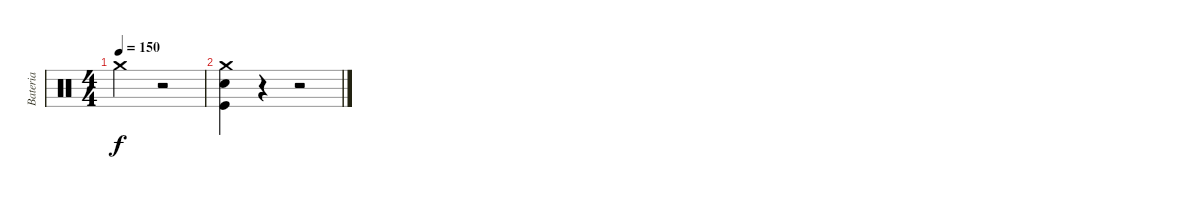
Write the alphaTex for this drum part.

\track ("Bateria" "Bateria") {instrument percussion}
\staff {score}
\articulation defaults
\ts (4 4)
\tempo 150
\clef neutral
\ks c "Crash medium (hit)"{t}.2{dy f}
r.2 |
("Crash medium (hit)" "Snare (hit) 2" "Kick (hit)").4 r.4 r.2
